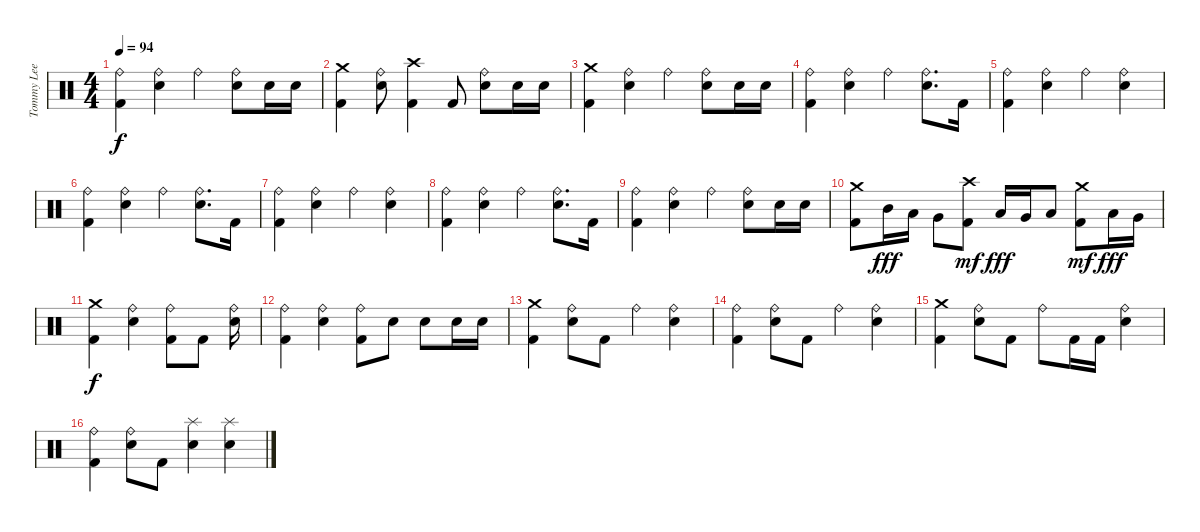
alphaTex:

\track ("Tommy Lee" "Tommy Lee") {instrument percussion}
\staff {score}
\articulation defaults
\ts (4 4)
\tempo 94
\clef neutral
\ks c
("Ride (bell)" "Kick (hit) 2").4{dy f} ("Ride (bell)" "Snare (hit) 2").4 "Ride (bell)".4 ("Ride (bell)" "Snare (hit) 2").8 "Snare (hit) 2".16 "Snare (hit) 2".16 |
("Crash medium (hit)" "Kick (hit) 2").4 ("Ride (bell)" "Snare (hit) 2").8 ("Crash high (hit)" "Kick (hit) 2").4 "Kick (hit) 2".8 ("Ride (bell)" "Snare (hit) 2").8 "Snare (hit) 2".16 "Snare (hit) 2".16 |
("Crash medium (hit)" "Kick (hit) 2").4 ("Ride (bell)" "Snare (hit) 2").4 "Ride (bell)".4 ("Ride (bell)" "Snare (hit) 2").8 "Snare (hit) 2".16 "Snare (hit) 2".16 |
("Ride (bell)" "Kick (hit) 2").4 ("Ride (bell)" "Snare (hit) 2").4 "Ride (bell)".4 ("Ride (bell)" "Snare (hit) 2").8{d} "Kick (hit) 2".16 |
("Ride (bell)" "Kick (hit) 2").4 ("Ride (bell)" "Snare (hit) 2").4 "Ride (bell)".4 ("Ride (bell)" "Snare (hit) 2").4 |
("Ride (bell)" "Kick (hit) 2").4 ("Ride (bell)" "Snare (hit) 2").4 "Ride (bell)".4 ("Ride (bell)" "Snare (hit) 2").8{d} "Kick (hit) 2".16 |
("Ride (bell)" "Kick (hit) 2").4 ("Ride (bell)" "Snare (hit) 2").4 "Ride (bell)".4 ("Ride (bell)" "Snare (hit) 2").4 |
("Ride (bell)" "Kick (hit) 2").4 ("Ride (bell)" "Snare (hit) 2").4 "Ride (bell)".4 ("Ride (bell)" "Snare (hit) 2").8{d} "Kick (hit) 2".16 |
("Ride (bell)" "Kick (hit) 2").4 ("Ride (bell)" "Snare (hit) 2").4 "Ride (bell)".4 ("Ride (bell)" "Snare (hit) 2").8 "Snare (hit) 2".16 "Snare (hit) 2".16 |
("Crash medium (hit)" "Kick (hit) 2").8 "Mid Tom (hit)".16{dy fff} "Low Tom (hit)".16 "Very Low Tom (hit)".8 ("Crash high (hit)" "Kick (hit) 2").8{dy mf} "Low Tom (hit)".16{dy fff} "Very Low Tom (hit)".16 "Low Floor Tom (hit)".8 ("Crash medium (hit)" "Kick (hit) 2").8{dy mf} "Low Tom (hit)".16{dy fff} "Very Low Tom (hit)".16 |
("Crash medium (hit)" "Kick (hit) 2").4{dy f} ("Ride (bell)" "Snare (hit) 2").4 ("Ride (bell)" "Kick (hit) 2").8 "Kick (hit) 2".8 ("Ride (bell)" "Snare (hit) 2").16 |
("Ride (bell)" "Kick (hit) 2").4 ("Ride (bell)" "Snare (hit) 2").4 ("Ride (bell)" "Kick (hit) 2").8 "Snare (hit) 2".8 "Snare (hit) 2".8 "Snare (hit) 2".16 "Snare (hit) 2".16 |
("Crash medium (hit)" "Kick (hit) 2").4 ("Ride (bell)" "Snare (hit) 2").8 "Kick (hit) 2".8 "Ride (bell)".4 ("Ride (bell)" "Snare (hit) 2").4 |
("Ride (bell)" "Kick (hit) 2").4 ("Ride (bell)" "Snare (hit) 2").8 "Kick (hit) 2".8 "Ride (bell)".4 ("Ride (bell)" "Snare (hit) 2").4 |
("Crash medium (hit)" "Kick (hit) 2").4 ("Ride (bell)" "Snare (hit) 2").8 "Kick (hit) 2".8 "Ride (bell)".8 "Kick (hit) 2".16 "Kick (hit) 2".16 ("Ride (bell)" "Snare (hit) 2").4 |
("Ride (bell)" "Kick (hit) 2").4 ("Ride (bell)" "Snare (hit) 2").8 "Kick (hit) 2".8 ("Splash (hit)" "Snare (hit) 2").4 ("Splash (hit)" "Snare (hit) 2").4
